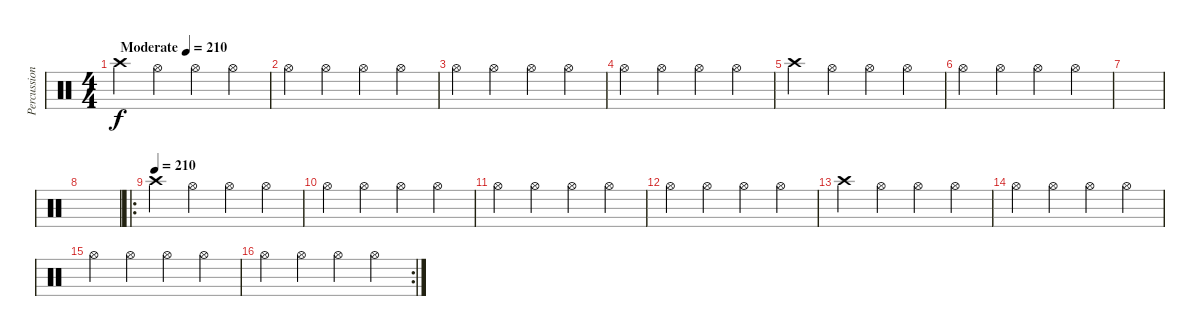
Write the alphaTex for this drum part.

\track ("Percussion" "Percussion") {instrument percussion}
\staff {score}
\articulation defaults
\ts (4 4)
\tempo (210 "Moderate")
\clef neutral
\ks c "Crash high (hit)".4{dy f} "Hi-Hat (open)".4 "Hi-Hat (open)".4 "Hi-Hat (open)".4
|
"Hi-Hat (open)".4 "Hi-Hat (open)".4 "Hi-Hat (open)".4 "Hi-Hat (open)".4 |
"Hi-Hat (open)".4 "Hi-Hat (open)".4 "Hi-Hat (open)".4 "Hi-Hat (open)".4 |
"Hi-Hat (open)".4 "Hi-Hat (open)".4 "Hi-Hat (open)".4 "Hi-Hat (open)".4 |
"Crash high (hit)".4 "Hi-Hat (open)".4 "Hi-Hat (open)".4 "Hi-Hat (open)".4 |
"Hi-Hat (open)".4 "Hi-Hat (open)".4 "Hi-Hat (open)".4 "Hi-Hat (open)".4 |
|
|
\ro
\tempo (210)
"Crash high (hit)".4 "Hi-Hat (open)".4 "Hi-Hat (open)".4 "Hi-Hat (open)".4 |
"Hi-Hat (open)".4 "Hi-Hat (open)".4 "Hi-Hat (open)".4 "Hi-Hat (open)".4 |
"Hi-Hat (open)".4 "Hi-Hat (open)".4 "Hi-Hat (open)".4 "Hi-Hat (open)".4 |
"Hi-Hat (open)".4 "Hi-Hat (open)".4 "Hi-Hat (open)".4 "Hi-Hat (open)".4 |
"Crash high (hit)".4 "Hi-Hat (open)".4 "Hi-Hat (open)".4 "Hi-Hat (open)".4 |
"Hi-Hat (open)".4 "Hi-Hat (open)".4 "Hi-Hat (open)".4 "Hi-Hat (open)".4 |
"Hi-Hat (open)".4 "Hi-Hat (open)".4 "Hi-Hat (open)".4 "Hi-Hat (open)".4 |
\rc 2 "Hi-Hat (open)".4 "Hi-Hat (open)".4 "Hi-Hat (open)".4 "Hi-Hat (open)".4
